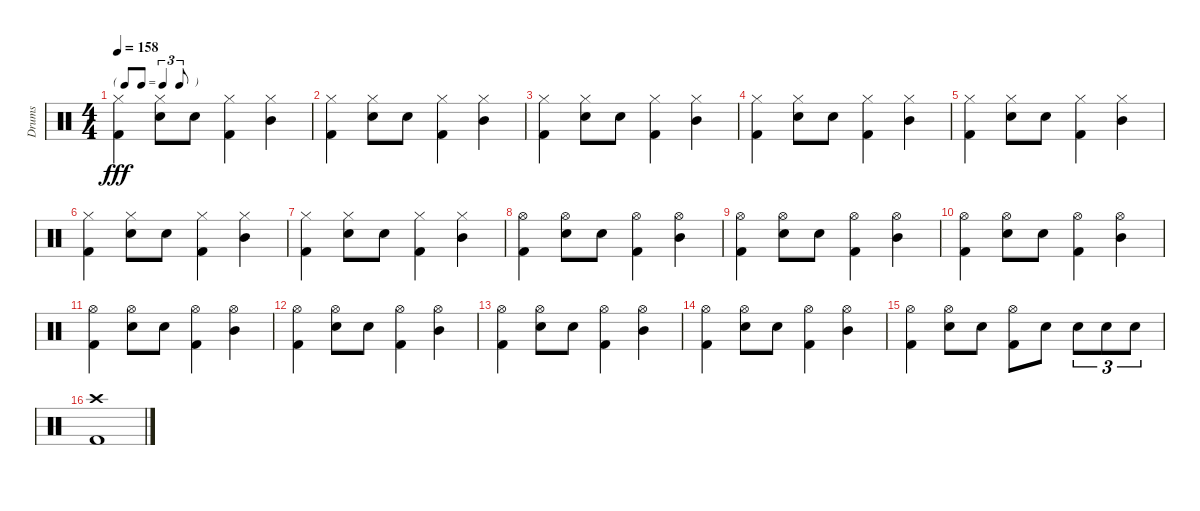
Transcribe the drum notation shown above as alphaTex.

\track ("Drums" "Drums") {instrument percussion}
\staff {score}
\articulation defaults
\ts (4 4)
\tf triplet8th
\tempo 158
\clef neutral
\ks c
("Hi-Hat (closed)" "Kick (hit) 2").4{dy fff} ("Hi-Hat (closed)" "Snare (hit) 2").8 "Snare (hit) 2".8 ("Hi-Hat (closed)" "Kick (hit) 2").4 ("Hi-Hat (closed)" "Mid Tom (hit)").4 |
("Hi-Hat (closed)" "Kick (hit) 2").4 ("Hi-Hat (closed)" "Snare (hit) 2").8 "Snare (hit) 2".8 ("Hi-Hat (closed)" "Kick (hit) 2").4 ("Hi-Hat (closed)" "Mid Tom (hit)").4 |
("Hi-Hat (closed)" "Kick (hit) 2").4 ("Hi-Hat (closed)" "Snare (hit) 2").8 "Snare (hit) 2".8 ("Hi-Hat (closed)" "Kick (hit) 2").4 ("Hi-Hat (closed)" "Mid Tom (hit)").4 |
("Hi-Hat (closed)" "Kick (hit) 2").4 ("Hi-Hat (closed)" "Snare (hit) 2").8 "Snare (hit) 2".8 ("Hi-Hat (closed)" "Kick (hit) 2").4 ("Hi-Hat (closed)" "Mid Tom (hit)").4 |
("Hi-Hat (closed)" "Kick (hit) 2").4 ("Hi-Hat (closed)" "Snare (hit) 2").8 "Snare (hit) 2".8 ("Hi-Hat (closed)" "Kick (hit) 2").4 ("Hi-Hat (closed)" "Mid Tom (hit)").4 |
("Hi-Hat (closed)" "Kick (hit) 2").4 ("Hi-Hat (closed)" "Snare (hit) 2").8 "Snare (hit) 2".8 ("Hi-Hat (closed)" "Kick (hit) 2").4 ("Hi-Hat (closed)" "Mid Tom (hit)").4 |
("Hi-Hat (closed)" "Kick (hit) 2").4 ("Hi-Hat (closed)" "Snare (hit) 2").8 "Snare (hit) 2".8 ("Hi-Hat (closed)" "Kick (hit) 2").4 ("Hi-Hat (closed)" "Mid Tom (hit)").4 |
("Hi-Hat (open)" "Kick (hit) 2").4 ("Hi-Hat (open)" "Snare (hit) 2").8 "Snare (hit) 2".8 ("Hi-Hat (open)" "Kick (hit) 2").4 ("Hi-Hat (open)" "Mid Tom (hit)").4 |
("Hi-Hat (open)" "Kick (hit) 2").4 ("Hi-Hat (open)" "Snare (hit) 2").8 "Snare (hit) 2".8 ("Hi-Hat (open)" "Kick (hit) 2").4 ("Hi-Hat (open)" "Mid Tom (hit)").4 |
("Hi-Hat (open)" "Kick (hit) 2").4 ("Hi-Hat (open)" "Snare (hit) 2").8 "Snare (hit) 2".8 ("Hi-Hat (open)" "Kick (hit) 2").4 ("Hi-Hat (open)" "Mid Tom (hit)").4 |
("Hi-Hat (open)" "Kick (hit) 2").4 ("Hi-Hat (open)" "Snare (hit) 2").8 "Snare (hit) 2".8 ("Hi-Hat (open)" "Kick (hit) 2").4 ("Hi-Hat (open)" "Mid Tom (hit)").4 |
("Hi-Hat (open)" "Kick (hit) 2").4 ("Hi-Hat (open)" "Snare (hit) 2").8 "Snare (hit) 2".8 ("Hi-Hat (open)" "Kick (hit) 2").4 ("Hi-Hat (open)" "Mid Tom (hit)").4 |
("Hi-Hat (open)" "Kick (hit) 2").4 ("Hi-Hat (open)" "Snare (hit) 2").8 "Snare (hit) 2".8 ("Hi-Hat (open)" "Kick (hit) 2").4 ("Hi-Hat (open)" "Mid Tom (hit)").4 |
("Hi-Hat (open)" "Kick (hit) 2").4 ("Hi-Hat (open)" "Snare (hit) 2").8 "Snare (hit) 2".8 ("Hi-Hat (open)" "Kick (hit) 2").4 ("Hi-Hat (open)" "Mid Tom (hit)").4 |
("Hi-Hat (open)" "Kick (hit) 2").4 ("Hi-Hat (open)" "Snare (hit) 2").8 "Snare (hit) 2".8 ("Hi-Hat (open)" "Kick (hit) 2").8 "Snare (hit) 2".8 "Snare (hit) 2".8{tu (3 2)} "Snare (hit) 2".8{tu (3 2)} "Snare (hit) 2".8{tu (3 2)} |
("Crash high (hit)" "Kick (hit) 2").1
